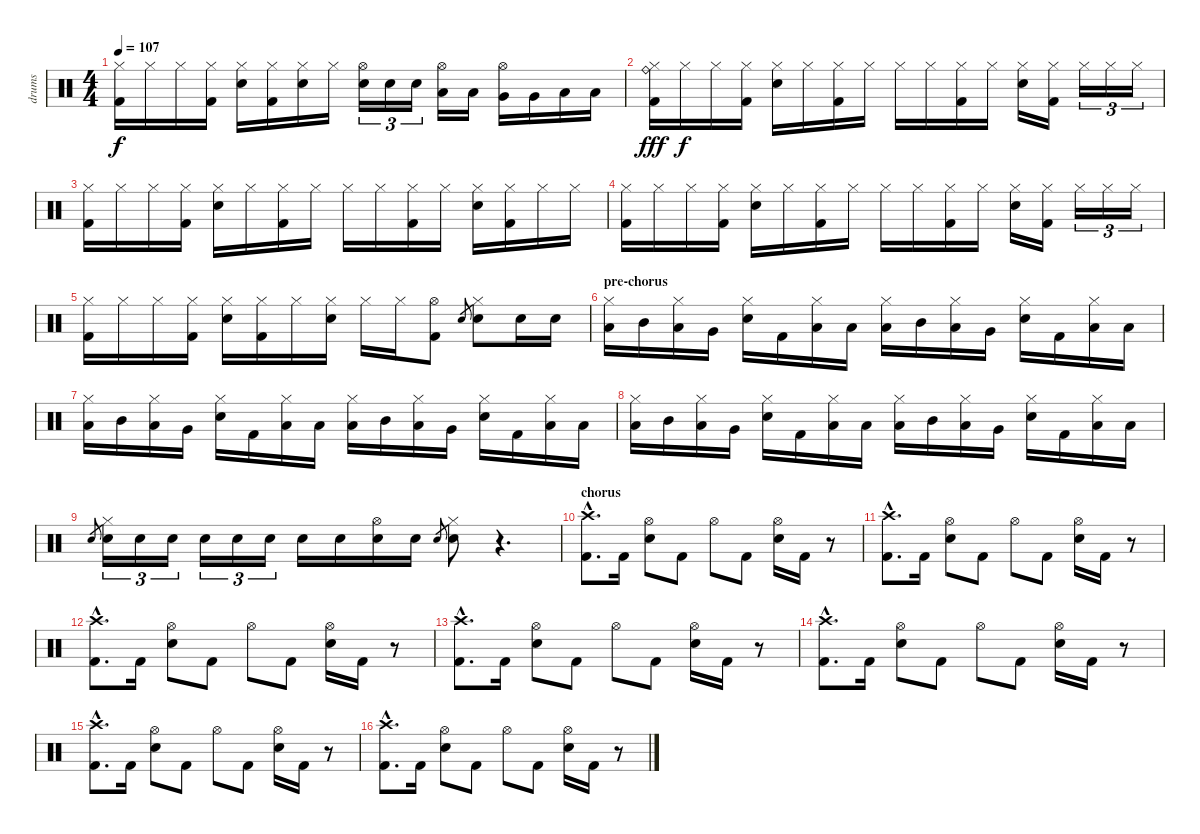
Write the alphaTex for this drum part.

\track ("drums" "drums") {instrument percussion}
\staff {score}
\articulation defaults
\ts (4 4)
\tempo 107
\clef neutral
\ks c
("Hi-Hat (closed)" "Kick (hit) 2").16{dy f} "Hi-Hat (closed)".16 "Hi-Hat (closed)".16 ("Hi-Hat (closed)" "Kick (hit) 2").16 ("Hi-Hat (closed)" "Electric Snare (hit)").16 ("Hi-Hat (closed)" "Kick (hit) 2").16 ("Hi-Hat (closed)" "Electric Snare (hit)").16 "Hi-Hat (closed)".16 ("Hi-Hat (open)" "Electric Snare (hit)").16{tu (3 2)} "Electric Snare (hit)".16{tu (3 2)} "Electric Snare (hit)".16{tu (3 2)} ("Hi-Hat (open)" "Low Tom (hit)").16 "Low Tom (hit)".16 ("Hi-Hat (open)" "Very Low Tom (hit)").16 "Very Low Tom (hit)".16 "Low Floor Tom (hit)".16 "Low Floor Tom (hit)".16 |
("Ride (bell)" "Hi-Hat (closed)" "Kick (hit) 2").16{dy fff} "Hi-Hat (closed)".16{dy f} "Hi-Hat (closed)".16 ("Hi-Hat (closed)" "Kick (hit) 2").16 ("Hi-Hat (closed)" "Electric Snare (hit)").16 "Hi-Hat (closed)".16 ("Hi-Hat (closed)" "Kick (hit) 2").16 "Hi-Hat (closed)".16 "Hi-Hat (closed)".16 "Hi-Hat (closed)".16 ("Hi-Hat (closed)" "Kick (hit) 2").16 "Hi-Hat (closed)".16 ("Hi-Hat (closed)" "Electric Snare (hit)").16 ("Hi-Hat (closed)" "Kick (hit) 2").16 "Hi-Hat (closed)".16{tu (3 2)} "Hi-Hat (closed)".16{tu (3 2)} "Hi-Hat (closed)".16{tu (3 2)} |
("Hi-Hat (closed)" "Kick (hit) 2").16 "Hi-Hat (closed)".16 "Hi-Hat (closed)".16 ("Hi-Hat (closed)" "Kick (hit) 2").16 ("Hi-Hat (closed)" "Electric Snare (hit)").16 "Hi-Hat (closed)".16 ("Hi-Hat (closed)" "Kick (hit) 2").16 "Hi-Hat (closed)".16 "Hi-Hat (closed)".16 "Hi-Hat (closed)".16 ("Hi-Hat (closed)" "Kick (hit) 2").16 "Hi-Hat (closed)".16 ("Hi-Hat (closed)" "Electric Snare (hit)").16 ("Hi-Hat (closed)" "Kick (hit) 2").16 "Hi-Hat (closed)".16 "Hi-Hat (closed)".16 |
("Hi-Hat (closed)" "Kick (hit) 2").16 "Hi-Hat (closed)".16 "Hi-Hat (closed)".16 ("Hi-Hat (closed)" "Kick (hit) 2").16 ("Hi-Hat (closed)" "Electric Snare (hit)").16 "Hi-Hat (closed)".16 ("Hi-Hat (closed)" "Kick (hit) 2").16 "Hi-Hat (closed)".16 "Hi-Hat (closed)".16 "Hi-Hat (closed)".16 ("Hi-Hat (closed)" "Kick (hit) 2").16 "Hi-Hat (closed)".16 ("Hi-Hat (closed)" "Electric Snare (hit)").16 ("Hi-Hat (closed)" "Kick (hit) 2").16 "Hi-Hat (closed)".16{tu (3 2)} "Hi-Hat (closed)".16{tu (3 2)} "Hi-Hat (closed)".16{tu (3 2)} |
("Hi-Hat (closed)" "Kick (hit) 2").16 "Hi-Hat (closed)".16 "Hi-Hat (closed)".16 ("Hi-Hat (closed)" "Kick (hit) 2").16 ("Hi-Hat (closed)" "Electric Snare (hit)").16 ("Hi-Hat (closed)" "Kick (hit) 2").16 "Hi-Hat (closed)".16 ("Hi-Hat (closed)" "Electric Snare (hit)").16 "Hi-Hat (closed)".16 "Hi-Hat (closed)".16 ("Hi-Hat (open)" "Kick (hit) 2").8 "Electric Snare (hit)".8{gr} ("Hi-Hat (closed)" "Electric Snare (hit)").8 "Electric Snare (hit)".16 "Electric Snare (hit)".16 |
\section ("" "pre-chorus")
("Hi-Hat (closed)" "Low Tom (hit)").16 "Mid Tom (hit)".16 ("Hi-Hat (closed)" "Low Floor Tom (hit)").16 "Very Low Tom (hit)".16 ("Hi-Hat (closed)" "Electric Snare (hit)").16 "Kick (hit) 2".16 ("Hi-Hat (closed)" "Low Floor Tom (hit)").16 "Low Floor Tom (hit)".16 ("Hi-Hat (closed)" "Low Tom (hit)").16 "Mid Tom (hit)".16 ("Hi-Hat (closed)" "Low Floor Tom (hit)").16 "Very Low Tom (hit)".16 ("Hi-Hat (closed)" "Electric Snare (hit)").16 "Kick (hit) 2".16 ("Hi-Hat (closed)" "Low Tom (hit)").16 "Low Tom (hit)".16 |
("Hi-Hat (closed)" "Low Tom (hit)").16 "Mid Tom (hit)".16 ("Hi-Hat (closed)" "Low Floor Tom (hit)").16 "Very Low Tom (hit)".16 ("Hi-Hat (closed)" "Electric Snare (hit)").16 "Kick (hit) 2".16 ("Hi-Hat (closed)" "Low Floor Tom (hit)").16 "Low Floor Tom (hit)".16 ("Hi-Hat (closed)" "Low Tom (hit)").16 "Mid Tom (hit)".16 ("Hi-Hat (closed)" "Low Floor Tom (hit)").16 "Very Low Tom (hit)".16 ("Hi-Hat (closed)" "Electric Snare (hit)").16 "Kick (hit) 2".16 ("Hi-Hat (closed)" "Low Tom (hit)").16 "Low Tom (hit)".16 |
("Hi-Hat (closed)" "Low Tom (hit)").16 "Mid Tom (hit)".16 ("Hi-Hat (closed)" "Low Floor Tom (hit)").16 "Very Low Tom (hit)".16 ("Hi-Hat (closed)" "Electric Snare (hit)").16 "Kick (hit) 2".16 ("Hi-Hat (closed)" "Low Floor Tom (hit)").16 "Low Floor Tom (hit)".16 ("Hi-Hat (closed)" "Low Tom (hit)").16 "Mid Tom (hit)".16 ("Hi-Hat (closed)" "Low Floor Tom (hit)").16 "Very Low Tom (hit)".16 ("Hi-Hat (closed)" "Electric Snare (hit)").16 "Kick (hit) 2".16 ("Hi-Hat (closed)" "Low Tom (hit)").16 "Low Tom (hit)".16 |
"Electric Snare (hit)".8{gr} ("Hi-Hat (closed)" "Electric Snare (hit)").16{tu (3 2)} "Electric Snare (hit)".16{tu (3 2)} "Electric Snare (hit)".16{tu (3 2)} "Electric Snare (hit)".16{tu (3 2)} "Electric Snare (hit)".16{tu (3 2)} "Electric Snare (hit)".16{tu (3 2)} "Electric Snare (hit)".16 "Electric Snare (hit)".16 ("Hi-Hat (open)" "Electric Snare (hit)").16 "Electric Snare (hit)".16 "Electric Snare (hit)".8{gr} ("Hi-Hat (closed)" "Electric Snare (hit)").8 r.4{d} |
\section ("" "chorus")
("Crash high (hit)"{hac} "Kick (hit) 2"{hac}).8{d} "Kick (hit) 2".16 ("Hi-Hat (open)" "Electric Snare (hit)").8 "Kick (hit) 2".8 "Hi-Hat (open)".8 "Kick (hit) 2".8 ("Hi-Hat (open)" "Electric Snare (hit)").16 "Kick (hit) 2".16 r.8 |
("Crash high (hit)"{hac} "Kick (hit) 2"{hac}).8{d} "Kick (hit) 2".16 ("Hi-Hat (open)" "Electric Snare (hit)").8 "Kick (hit) 2".8 "Hi-Hat (open)".8 "Kick (hit) 2".8 ("Hi-Hat (open)" "Electric Snare (hit)").16 "Kick (hit) 2".16 r.8 |
("Crash high (hit)"{hac} "Kick (hit) 2"{hac}).8{d} "Kick (hit) 2".16 ("Hi-Hat (open)" "Electric Snare (hit)").8 "Kick (hit) 2".8 "Hi-Hat (open)".8 "Kick (hit) 2".8 ("Hi-Hat (open)" "Electric Snare (hit)").16 "Kick (hit) 2".16 r.8 |
("Crash high (hit)"{hac} "Kick (hit) 2"{hac}).8{d} "Kick (hit) 2".16 ("Hi-Hat (open)" "Electric Snare (hit)").8 "Kick (hit) 2".8 "Hi-Hat (open)".8 "Kick (hit) 2".8 ("Hi-Hat (open)" "Electric Snare (hit)").16 "Kick (hit) 2".16 r.8 |
("Crash high (hit)"{hac} "Kick (hit) 2"{hac}).8{d} "Kick (hit) 2".16 ("Hi-Hat (open)" "Electric Snare (hit)").8 "Kick (hit) 2".8 "Hi-Hat (open)".8 "Kick (hit) 2".8 ("Hi-Hat (open)" "Electric Snare (hit)").16 "Kick (hit) 2".16 r.8 |
("Crash high (hit)"{hac} "Kick (hit) 2"{hac}).8{d} "Kick (hit) 2".16 ("Hi-Hat (open)" "Electric Snare (hit)").8 "Kick (hit) 2".8 "Hi-Hat (open)".8 "Kick (hit) 2".8 ("Hi-Hat (open)" "Electric Snare (hit)").16 "Kick (hit) 2".16 r.8 |
("Crash high (hit)"{hac} "Kick (hit) 2"{hac}).8{d} "Kick (hit) 2".16 ("Hi-Hat (open)" "Electric Snare (hit)").8 "Kick (hit) 2".8 "Hi-Hat (open)".8 "Kick (hit) 2".8 ("Hi-Hat (open)" "Electric Snare (hit)").16 "Kick (hit) 2".16 r.8
